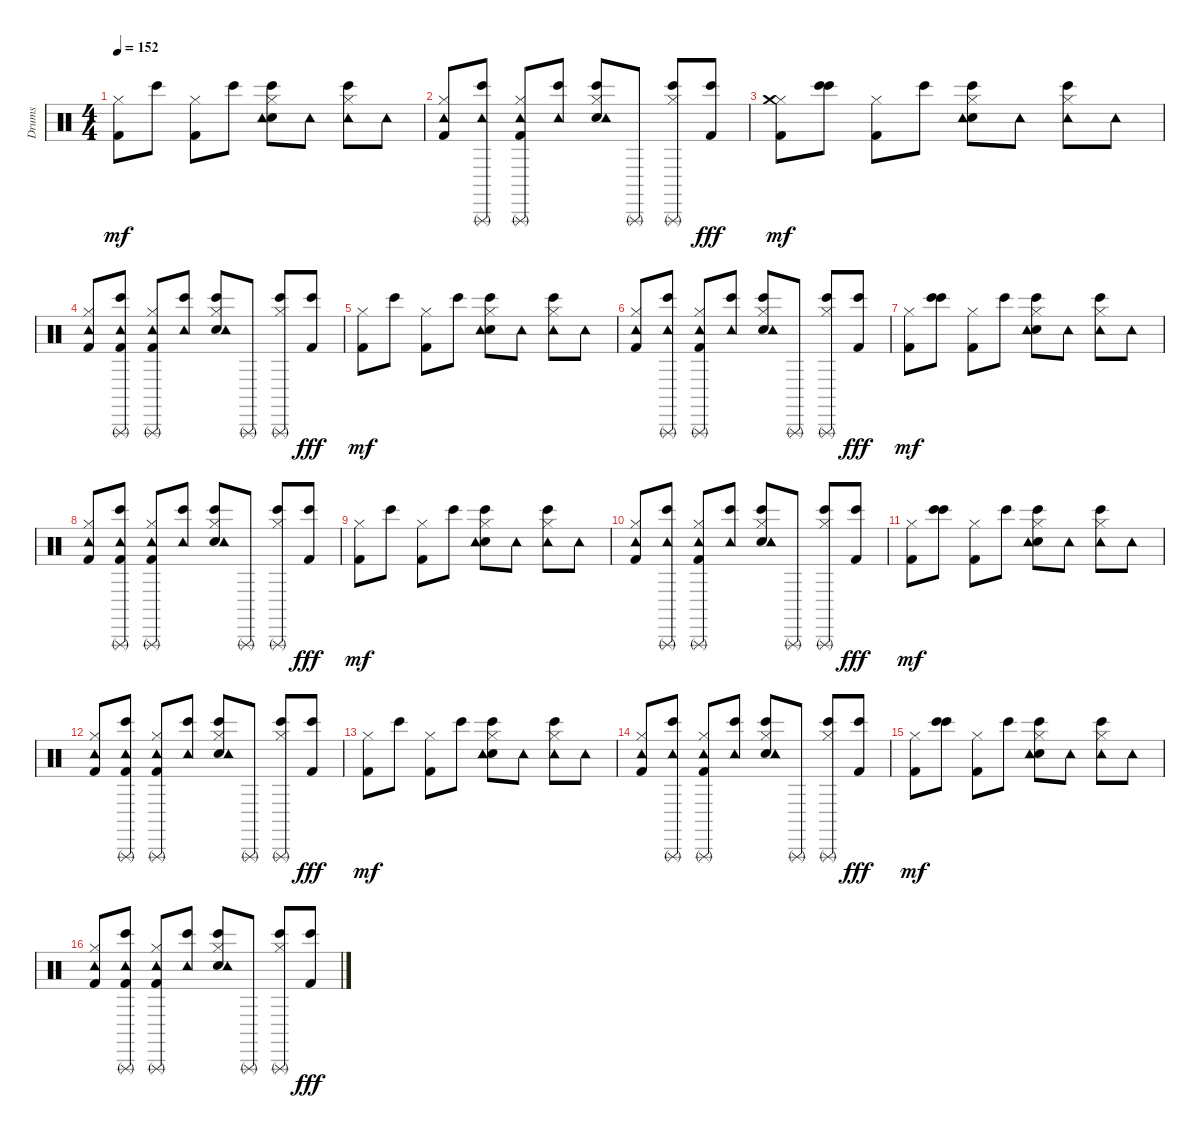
\track ("Drums" "Drums") {instrument percussion}
\staff {score}
\articulation defaults
\ts (4 4)
\tempo 152
\clef neutral
\ks c
("Kick (hit) 2" "Hi-Hat (closed)").8{dy mf} "Bongo High (hit)".8 ("Kick (hit) 2" "Hi-Hat (closed)").8 "Bongo High (hit)".8 ("Bongo High (hit)" "Electric Snare (hit)" "Hi-Hat (closed)" "Tambourine (hit)").8 "Tambourine (hit)".8 ("Tambourine (hit)" "Bongo High (hit)" "Hi-Hat (closed)").8 "Tambourine (hit)".8 |
("Tambourine (hit)" "Kick (hit) 2" "Hi-Hat (closed)").8 ("Tambourine (hit)" "Bongo High (hit)" "Triangle (rnute)").8 ("Kick (hit) 2" "Hi-Hat (closed)" "Triangle (rnute)" "Tambourine (hit)").8 ("Tambourine (hit)" "Bongo High (hit)").8 ("Bongo High (hit)" "Electric Snare (hit)" "Hi-Hat (closed)" "Tambourine (hit)").8 "Triangle (rnute)".8 ("Bongo High (hit)" "Hi-Hat (closed)" "Triangle (rnute)").8 ("Bongo High (hit)" "Kick (hit) 2").8{dy fff} |
("Kick (hit) 2" "Hi-Hat (closed)" "Crash medium (hit)").8{dy mf} ("Bongo High (hit)" "Bongo High (hit)").8 ("Kick (hit) 2" "Hi-Hat (closed)").8 "Bongo High (hit)".8 ("Bongo High (hit)" "Electric Snare (hit)" "Hi-Hat (closed)" "Tambourine (hit)").8 "Tambourine (hit)".8 ("Tambourine (hit)" "Bongo High (hit)" "Hi-Hat (closed)").8 "Tambourine (hit)".8 |
("Tambourine (hit)" "Kick (hit) 2" "Hi-Hat (closed)").8 ("Tambourine (hit)" "Bongo High (hit)" "Kick (hit) 2" "Triangle (rnute)").8 ("Kick (hit) 2" "Hi-Hat (closed)" "Triangle (rnute)" "Tambourine (hit)").8 ("Tambourine (hit)" "Bongo High (hit)").8 ("Bongo High (hit)" "Electric Snare (hit)" "Hi-Hat (closed)" "Tambourine (hit)").8 "Triangle (rnute)".8 ("Bongo High (hit)" "Hi-Hat (closed)" "Triangle (rnute)").8 ("Bongo High (hit)" "Kick (hit) 2").8{dy fff} |
("Kick (hit) 2" "Hi-Hat (closed)").8{dy mf} "Bongo High (hit)".8 ("Kick (hit) 2" "Hi-Hat (closed)").8 "Bongo High (hit)".8 ("Bongo High (hit)" "Electric Snare (hit)" "Hi-Hat (closed)" "Tambourine (hit)").8 "Tambourine (hit)".8 ("Tambourine (hit)" "Bongo High (hit)" "Hi-Hat (closed)").8 "Tambourine (hit)".8 |
("Tambourine (hit)" "Kick (hit) 2" "Hi-Hat (closed)").8 ("Tambourine (hit)" "Bongo High (hit)" "Triangle (rnute)").8 ("Kick (hit) 2" "Hi-Hat (closed)" "Triangle (rnute)" "Tambourine (hit)").8 ("Tambourine (hit)" "Bongo High (hit)").8 ("Bongo High (hit)" "Electric Snare (hit)" "Hi-Hat (closed)" "Tambourine (hit)").8 "Triangle (rnute)".8 ("Bongo High (hit)" "Hi-Hat (closed)" "Triangle (rnute)").8 ("Bongo High (hit)" "Kick (hit) 2").8{dy fff} |
("Kick (hit) 2" "Hi-Hat (closed)").8{dy mf} ("Bongo High (hit)" "Bongo High (hit)").8 ("Kick (hit) 2" "Hi-Hat (closed)").8 "Bongo High (hit)".8 ("Bongo High (hit)" "Electric Snare (hit)" "Hi-Hat (closed)" "Tambourine (hit)").8 "Tambourine (hit)".8 ("Tambourine (hit)" "Bongo High (hit)" "Hi-Hat (closed)").8 "Tambourine (hit)".8 |
("Tambourine (hit)" "Kick (hit) 2" "Hi-Hat (closed)").8 ("Tambourine (hit)" "Bongo High (hit)" "Kick (hit) 2" "Triangle (rnute)").8 ("Kick (hit) 2" "Hi-Hat (closed)" "Triangle (rnute)" "Tambourine (hit)").8 ("Tambourine (hit)" "Bongo High (hit)").8 ("Bongo High (hit)" "Electric Snare (hit)" "Hi-Hat (closed)" "Tambourine (hit)").8 "Triangle (rnute)".8 ("Bongo High (hit)" "Hi-Hat (closed)" "Triangle (rnute)").8 ("Bongo High (hit)" "Kick (hit) 2").8{dy fff} |
("Kick (hit) 2" "Hi-Hat (closed)").8{dy mf} "Bongo High (hit)".8 ("Kick (hit) 2" "Hi-Hat (closed)").8 "Bongo High (hit)".8 ("Bongo High (hit)" "Electric Snare (hit)" "Hi-Hat (closed)" "Tambourine (hit)").8 "Tambourine (hit)".8 ("Tambourine (hit)" "Bongo High (hit)" "Hi-Hat (closed)").8 "Tambourine (hit)".8 |
("Tambourine (hit)" "Kick (hit) 2" "Hi-Hat (closed)").8 ("Tambourine (hit)" "Bongo High (hit)" "Triangle (rnute)").8 ("Kick (hit) 2" "Hi-Hat (closed)" "Triangle (rnute)" "Tambourine (hit)").8 ("Tambourine (hit)" "Bongo High (hit)").8 ("Bongo High (hit)" "Electric Snare (hit)" "Hi-Hat (closed)" "Tambourine (hit)").8 "Triangle (rnute)".8 ("Bongo High (hit)" "Hi-Hat (closed)" "Triangle (rnute)").8 ("Bongo High (hit)" "Kick (hit) 2").8{dy fff} |
("Kick (hit) 2" "Hi-Hat (closed)").8{dy mf} ("Bongo High (hit)" "Bongo High (hit)").8 ("Kick (hit) 2" "Hi-Hat (closed)").8 "Bongo High (hit)".8 ("Bongo High (hit)" "Electric Snare (hit)" "Hi-Hat (closed)" "Tambourine (hit)").8 "Tambourine (hit)".8 ("Tambourine (hit)" "Bongo High (hit)" "Hi-Hat (closed)").8 "Tambourine (hit)".8 |
("Tambourine (hit)" "Kick (hit) 2" "Hi-Hat (closed)").8 ("Tambourine (hit)" "Bongo High (hit)" "Kick (hit) 2" "Triangle (rnute)").8 ("Kick (hit) 2" "Hi-Hat (closed)" "Triangle (rnute)" "Tambourine (hit)").8 ("Tambourine (hit)" "Bongo High (hit)").8 ("Bongo High (hit)" "Electric Snare (hit)" "Hi-Hat (closed)" "Tambourine (hit)").8 "Triangle (rnute)".8 ("Bongo High (hit)" "Hi-Hat (closed)" "Triangle (rnute)").8 ("Bongo High (hit)" "Kick (hit) 2").8{dy fff} |
("Kick (hit) 2" "Hi-Hat (closed)").8{dy mf} "Bongo High (hit)".8 ("Kick (hit) 2" "Hi-Hat (closed)").8 "Bongo High (hit)".8 ("Bongo High (hit)" "Electric Snare (hit)" "Hi-Hat (closed)" "Tambourine (hit)").8 "Tambourine (hit)".8 ("Tambourine (hit)" "Bongo High (hit)" "Hi-Hat (closed)").8 "Tambourine (hit)".8 |
("Tambourine (hit)" "Kick (hit) 2" "Hi-Hat (closed)").8 ("Tambourine (hit)" "Bongo High (hit)" "Triangle (rnute)").8 ("Kick (hit) 2" "Hi-Hat (closed)" "Triangle (rnute)" "Tambourine (hit)").8 ("Tambourine (hit)" "Bongo High (hit)").8 ("Bongo High (hit)" "Electric Snare (hit)" "Hi-Hat (closed)" "Tambourine (hit)").8 "Triangle (rnute)".8 ("Bongo High (hit)" "Hi-Hat (closed)" "Triangle (rnute)").8 ("Bongo High (hit)" "Kick (hit) 2").8{dy fff} |
("Kick (hit) 2" "Hi-Hat (closed)").8{dy mf} ("Bongo High (hit)" "Bongo High (hit)").8 ("Kick (hit) 2" "Hi-Hat (closed)").8 "Bongo High (hit)".8 ("Bongo High (hit)" "Electric Snare (hit)" "Hi-Hat (closed)" "Tambourine (hit)").8 "Tambourine (hit)".8 ("Tambourine (hit)" "Bongo High (hit)" "Hi-Hat (closed)").8 "Tambourine (hit)".8 |
("Tambourine (hit)" "Kick (hit) 2" "Hi-Hat (closed)").8 ("Tambourine (hit)" "Bongo High (hit)" "Kick (hit) 2" "Triangle (rnute)").8 ("Kick (hit) 2" "Hi-Hat (closed)" "Triangle (rnute)" "Tambourine (hit)").8 ("Tambourine (hit)" "Bongo High (hit)").8 ("Bongo High (hit)" "Electric Snare (hit)" "Hi-Hat (closed)" "Tambourine (hit)").8 "Triangle (rnute)".8 ("Bongo High (hit)" "Hi-Hat (closed)" "Triangle (rnute)").8 ("Bongo High (hit)" "Kick (hit) 2").8{dy fff}
